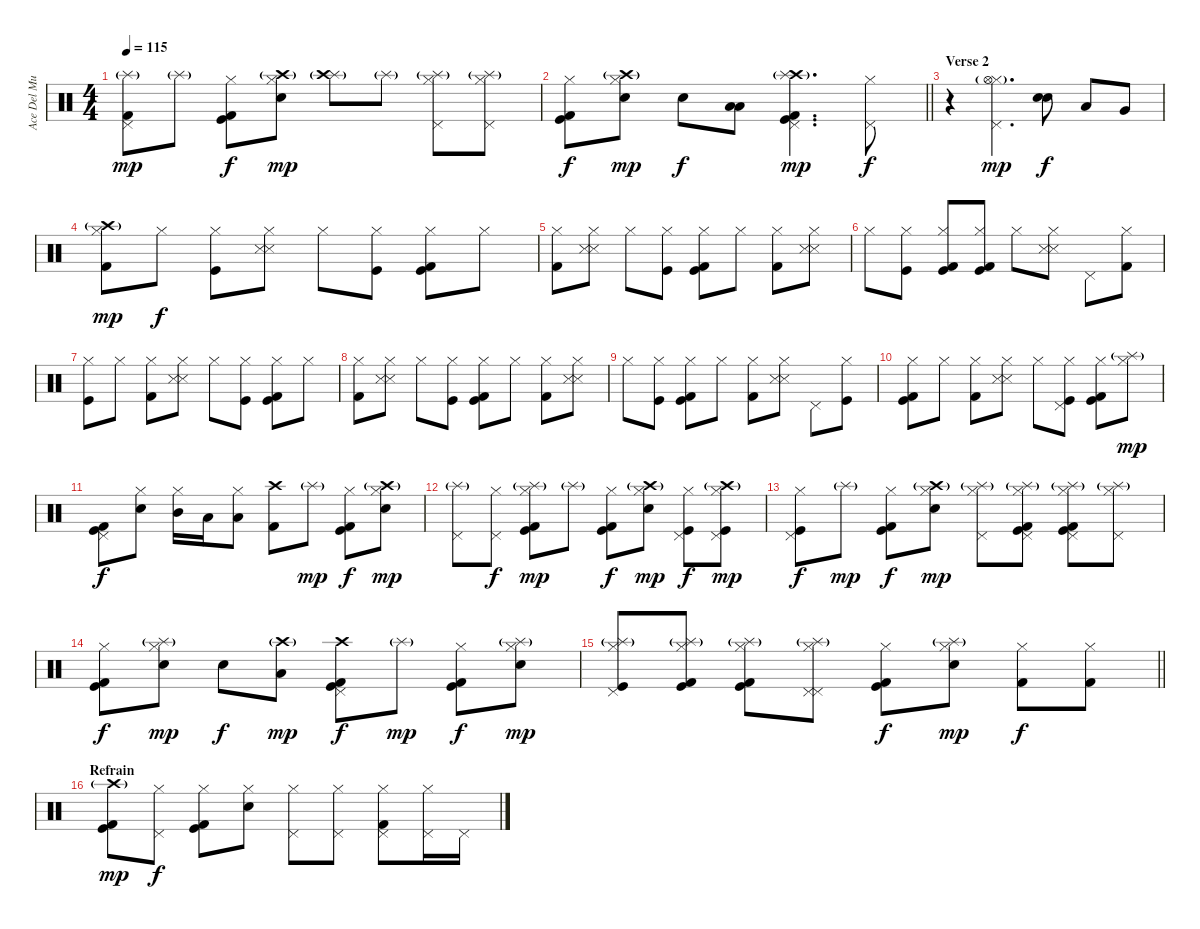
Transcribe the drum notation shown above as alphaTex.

\track ("Ace Del Mundo(Drums)" "Ace Del Mu") {instrument percussion}
\staff {score}
\articulation defaults
\ts (4 4)
\tempo 115
\clef neutral
\ks c
("Pedal Hi-Hat (hit)" "Kick (hit) 2" "Splash (hit)"{g}).8{dy mp} "Splash (hit)"{g}.8 ("Hi-Hat (closed)" "Kick (hit) 2" "Kick (hit)").8{dy f} ("Hi-Hat (closed)" "Electric Snare (hit)" "Crash high (hit)"{g}).8{dy mp} ("Splash (hit)"{g} "Crash high (hit)"{g}).8 "Splash (hit)"{g}.8 ("Splash (hit)"{g} "Pedal Hi-Hat (hit)" "Hi-Hat (closed)").8 ("Splash (hit)"{g} "Pedal Hi-Hat (hit)" "Hi-Hat (closed)").8 |
\barLineRight lightlight
("Hi-Hat (closed)" "Kick (hit) 2" "Kick (hit)").8{dy f} ("Hi-Hat (closed)" "Electric Snare (hit)" "Crash high (hit)"{g}).8{dy mp} "Electric Snare (hit)".8{dy f} ("Low Tom (hit)" "Low Tom (hit)").8 ("Pedal Hi-Hat (hit)" "Kick (hit) 2" "Kick (hit)" "Crash high (hit)"{g} "Splash (hit)"{g}).4{d dy mp} ("Pedal Hi-Hat (hit)" "Hi-Hat (closed)").8{dy f} |
\section ("" "Verse 2")
r.4 ("Pedal Hi-Hat (hit)" "Hi-Hat (closed)" "Hi-Hat (open)"{g}).4{d dy mp} ("Snare (hit) 2" "Electric Snare (hit)").8{bd 60 dy f} "Low Tom (hit)".8 "Very Low Tom (hit)".8 |
("Crash high (hit)"{g} "Hi-Hat (closed)" "Kick (hit) 2").8{dy mp} "Hi-Hat (closed)".8{dy f} ("Hi-Hat (closed)" "Kick (hit)").8 ("Hi-Hat (closed)" "Snare (side stick) 3" "Snare (side stick) 3").8 "Hi-Hat (closed)".8 ("Hi-Hat (closed)" "Kick (hit)").8 ("Hi-Hat (closed)" "Kick (hit) 2" "Kick (hit)").8 "Hi-Hat (closed)".8 |
("Hi-Hat (closed)" "Kick (hit) 2").8 ("Hi-Hat (closed)" "Snare (side stick) 3" "Snare (side stick) 3").8 "Hi-Hat (closed)".8 ("Hi-Hat (closed)" "Kick (hit)").8 ("Hi-Hat (closed)" "Kick (hit) 2" "Kick (hit)").8 "Hi-Hat (closed)".8 ("Hi-Hat (closed)" "Kick (hit) 2").8 ("Hi-Hat (closed)" "Snare (side stick) 3" "Snare (side stick) 3").8 |
"Hi-Hat (closed)".8 ("Hi-Hat (closed)" "Kick (hit)").8 ("Hi-Hat (closed)" "Kick (hit) 2" "Kick (hit)").8 ("Hi-Hat (closed)" "Kick (hit) 2" "Kick (hit)").8 "Hi-Hat (closed)".8 ("Hi-Hat (closed)" "Snare (side stick) 3" "Snare (side stick) 3").8 "Pedal Hi-Hat (hit)".8 ("Hi-Hat (closed)" "Kick (hit) 2").8 |
("Hi-Hat (closed)" "Kick (hit)").8 "Hi-Hat (closed)".8 ("Hi-Hat (closed)" "Kick (hit) 2").8 ("Hi-Hat (closed)" "Snare (side stick) 3" "Snare (side stick) 3").8 "Hi-Hat (closed)".8 ("Hi-Hat (closed)" "Kick (hit)").8 ("Hi-Hat (closed)" "Kick (hit) 2" "Kick (hit)").8 "Hi-Hat (closed)".8 |
("Hi-Hat (closed)" "Kick (hit) 2").8 ("Hi-Hat (closed)" "Snare (side stick) 3" "Snare (side stick) 3").8 "Hi-Hat (closed)".8 ("Hi-Hat (closed)" "Kick (hit)").8 ("Hi-Hat (closed)" "Kick (hit) 2" "Kick (hit)").8 "Hi-Hat (closed)".8 ("Hi-Hat (closed)" "Kick (hit) 2").8 ("Hi-Hat (closed)" "Snare (side stick) 3" "Snare (side stick) 3").8 |
"Hi-Hat (closed)".8 ("Hi-Hat (closed)" "Kick (hit)").8 ("Hi-Hat (closed)" "Kick (hit) 2" "Kick (hit)").8 "Hi-Hat (closed)".8 ("Hi-Hat (closed)" "Kick (hit) 2").8 ("Hi-Hat (closed)" "Snare (side stick) 3" "Snare (side stick) 3").8 "Pedal Hi-Hat (hit)".8 ("Hi-Hat (closed)" "Kick (hit)").8 |
("Hi-Hat (closed)" "Kick (hit) 2" "Kick (hit)").8 "Hi-Hat (closed)".8 ("Hi-Hat (closed)" "Kick (hit) 2").8 ("Hi-Hat (closed)" "Snare (side stick) 3" "Snare (side stick) 3").8 "Hi-Hat (closed)".8 ("Hi-Hat (closed)" "Pedal Hi-Hat (hit)" "Kick (hit)").8 ("Hi-Hat (closed)" "Kick (hit) 2" "Kick (hit)").8 ("Hi-Hat (closed)" "Splash (hit)"{g}).8{dy mp} |
("Pedal Hi-Hat (hit)" "Kick (hit) 2" "Kick (hit)").8{dy f} ("Hi-Hat (closed)" "Electric Snare (hit)").8 ("Hi-Hat (closed)" "Mid Tom (hit)").16 "Low Tom (hit)".16 ("Hi-Hat (closed)" "Low Tom (hit)").8 ("Crash high (hit)" "Kick (hit) 2").8 "Splash (hit)"{g}.8{dy mp} ("Hi-Hat (closed)" "Kick (hit) 2" "Kick (hit)").8{dy f} ("Hi-Hat (closed)" "Electric Snare (hit)" "Crash high (hit)"{g}).8{dy mp} |
("Pedal Hi-Hat (hit)" "Splash (hit)"{g}).8 ("Pedal Hi-Hat (hit)" "Hi-Hat (closed)").8{dy f} ("Hi-Hat (closed)" "Kick (hit) 2" "Kick (hit)" "Splash (hit)"{g}).8{dy mp} "Splash (hit)"{g}.8 ("Hi-Hat (closed)" "Kick (hit) 2" "Kick (hit)").8{dy f} ("Hi-Hat (closed)" "Electric Snare (hit)" "Crash high (hit)"{g}).8{dy mp} ("Pedal Hi-Hat (hit)" "Hi-Hat (closed)" "Kick (hit)").8{dy f} ("Pedal Hi-Hat (hit)" "Hi-Hat (closed)" "Kick (hit)" "Crash high (hit)"{g}).8{dy mp} |
("Pedal Hi-Hat (hit)" "Hi-Hat (closed)" "Kick (hit)").8{dy f} "Splash (hit)"{g}.8{dy mp} ("Hi-Hat (closed)" "Kick (hit) 2" "Kick (hit)").8{dy f} ("Hi-Hat (closed)" "Electric Snare (hit)" "Crash high (hit)"{g}).8{dy mp} ("Splash (hit)"{g} "Pedal Hi-Hat (hit)" "Hi-Hat (closed)").8 ("Splash (hit)"{g} "Pedal Hi-Hat (hit)" "Hi-Hat (closed)" "Kick (hit) 2" "Kick (hit)").8 ("Splash (hit)"{g} "Pedal Hi-Hat (hit)" "Hi-Hat (closed)" "Kick (hit) 2" "Kick (hit)").8 ("Splash (hit)"{g} "Pedal Hi-Hat (hit)" "Hi-Hat (closed)").8 |
("Hi-Hat (closed)" "Kick (hit) 2" "Kick (hit)").8{dy f} ("Hi-Hat (closed)" "Electric Snare (hit)" "Splash (hit)"{g}).8{dy mp} "Electric Snare (hit)".8{dy f} ("Low Tom (hit)" "Crash high (hit)"{g}).8{dy mp} ("Pedal Hi-Hat (hit)" "Kick (hit) 2" "Kick (hit)" "Crash high (hit)").8{dy f} "Splash (hit)"{g}.8{dy mp} ("Hi-Hat (closed)" "Kick (hit) 2" "Kick (hit)").8{dy f} ("Hi-Hat (closed)" "Electric Snare (hit)" "Splash (hit)"{g}).8{dy mp} |
\barLineRight lightlight
("Pedal Hi-Hat (hit)" "Hi-Hat (closed)" "Kick (hit)" "Splash (hit)"{g}).8 ("Hi-Hat (closed)" "Kick (hit) 2" "Kick (hit)" "Splash (hit)"{g}).8 ("Hi-Hat (closed)" "Kick (hit) 2" "Kick (hit)" "Splash (hit)"{g}).8 ("Pedal Hi-Hat (hit)" "Pedal Hi-Hat (hit)" "Hi-Hat (closed)" "Splash (hit)"{g}).8 ("Hi-Hat (closed)" "Kick (hit) 2" "Kick (hit)").8{dy f} ("Hi-Hat (closed)" "Electric Snare (hit)" "Splash (hit)"{g}).8{dy mp} ("Hi-Hat (closed)" "Kick (hit) 2").8{dy f} ("Hi-Hat (closed)" "Kick (hit) 2").8 |
\section ("" "Refrain")
("Crash high (hit)"{g} "Kick (hit) 2" "Kick (hit)").8{dy mp} ("Hi-Hat (closed)" "Pedal Hi-Hat (hit)").8{dy f} ("Hi-Hat (closed)" "Kick (hit) 2" "Kick (hit)").8 ("Hi-Hat (closed)" "Electric Snare (hit)").8 ("Hi-Hat (closed)" "Pedal Hi-Hat (hit)").8 ("Hi-Hat (closed)" "Pedal Hi-Hat (hit)").8 ("Hi-Hat (closed)" "Pedal Hi-Hat (hit)" "Kick (hit) 2").8 ("Hi-Hat (closed)" "Pedal Hi-Hat (hit)").16 "Pedal Hi-Hat (hit)".16
